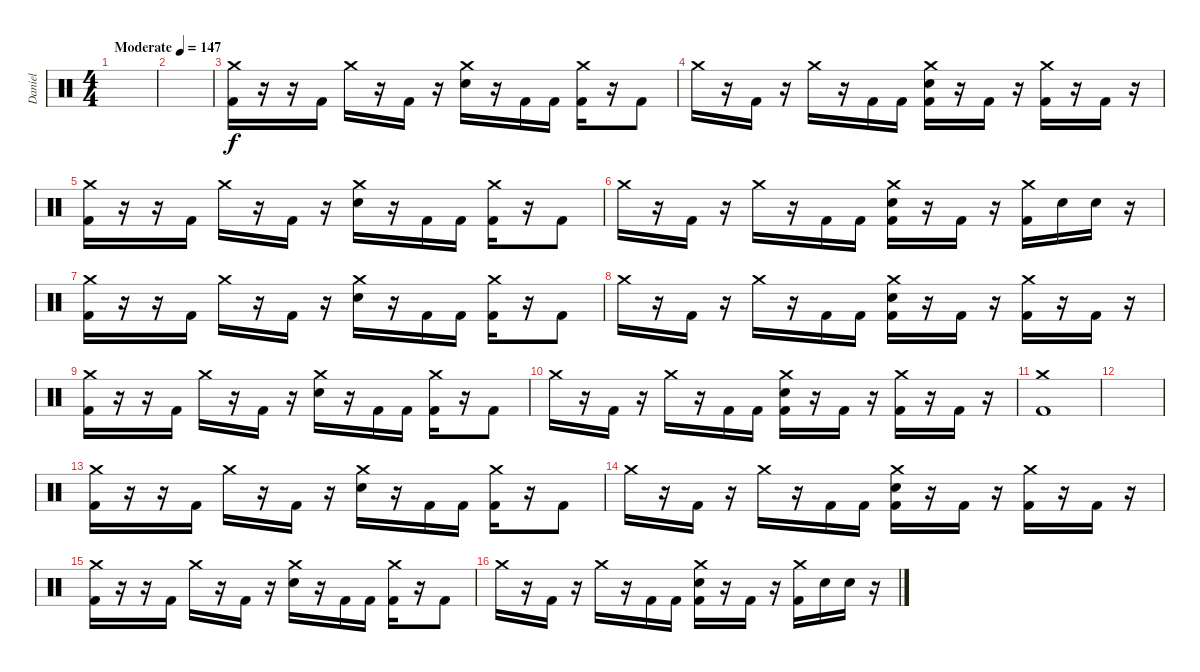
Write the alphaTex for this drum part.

\track ("Daniel" "Daniel") {instrument percussion}
\staff {score}
\articulation defaults
\ts (4 4)
\tempo (147 "Moderate")
\clef neutral
\ks c
|
|
("Crash medium (hit)" "Kick (hit) 2").16 r.16 r.16 "Kick (hit) 2".16 "Crash medium (hit)".16 r.16 "Kick (hit) 2".16 r.16 ("Crash medium (hit)" "Electric Snare (hit)").16 r.16 "Kick (hit) 2".16 "Kick (hit) 2".16 ("Crash medium (hit)" "Kick (hit) 2").16 r.16 "Kick (hit) 2".8 |
"Crash medium (hit)".16 r.16 "Kick (hit) 2".16 r.16 "Crash medium (hit)".16 r.16 "Kick (hit) 2".16 "Kick (hit) 2".16 ("Crash medium (hit)" "Electric Snare (hit)" "Kick (hit) 2").16 r.16 "Kick (hit) 2".16 r.16 ("Crash medium (hit)" "Kick (hit) 2").16 r.16 "Kick (hit) 2".16 r.16 |
("Crash medium (hit)" "Kick (hit) 2").16 r.16 r.16 "Kick (hit) 2".16 "Crash medium (hit)".16 r.16 "Kick (hit) 2".16 r.16 ("Crash medium (hit)" "Electric Snare (hit)").16 r.16 "Kick (hit) 2".16 "Kick (hit) 2".16 ("Crash medium (hit)" "Kick (hit) 2").16 r.16 "Kick (hit) 2".8 |
"Crash medium (hit)".16 r.16 "Kick (hit) 2".16 r.16 "Crash medium (hit)".16 r.16 "Kick (hit) 2".16 "Kick (hit) 2".16 ("Crash medium (hit)" "Electric Snare (hit)" "Kick (hit) 2").16 r.16 "Kick (hit) 2".16 r.16 ("Crash medium (hit)" "Kick (hit) 2").16 "Electric Snare (hit)".16 "Electric Snare (hit)".16 r.16 |
("Crash medium (hit)" "Kick (hit) 2").16 r.16 r.16 "Kick (hit) 2".16 "Crash medium (hit)".16 r.16 "Kick (hit) 2".16 r.16 ("Crash medium (hit)" "Electric Snare (hit)").16 r.16 "Kick (hit) 2".16 "Kick (hit) 2".16 ("Crash medium (hit)" "Kick (hit) 2").16 r.16 "Kick (hit) 2".8 |
"Crash medium (hit)".16 r.16 "Kick (hit) 2".16 r.16 "Crash medium (hit)".16 r.16 "Kick (hit) 2".16 "Kick (hit) 2".16 ("Crash medium (hit)" "Electric Snare (hit)" "Kick (hit) 2").16 r.16 "Kick (hit) 2".16 r.16 ("Crash medium (hit)" "Kick (hit) 2").16 r.16 "Kick (hit) 2".16 r.16 |
("Crash medium (hit)" "Kick (hit) 2").16 r.16 r.16 "Kick (hit) 2".16 "Crash medium (hit)".16 r.16 "Kick (hit) 2".16 r.16 ("Crash medium (hit)" "Electric Snare (hit)").16 r.16 "Kick (hit) 2".16 "Kick (hit) 2".16 ("Crash medium (hit)" "Kick (hit) 2").16 r.16 "Kick (hit) 2".8 |
"Crash medium (hit)".16 r.16 "Kick (hit) 2".16 r.16 "Crash medium (hit)".16 r.16 "Kick (hit) 2".16 "Kick (hit) 2".16 ("Crash medium (hit)" "Electric Snare (hit)" "Kick (hit) 2").16 r.16 "Kick (hit) 2".16 r.16 ("Crash medium (hit)" "Kick (hit) 2").16 r.16 "Kick (hit) 2".16 r.16 |
("Crash medium (hit)" "Kick (hit) 2").1 |
|
("Crash medium (hit)" "Kick (hit) 2").16 r.16 r.16 "Kick (hit) 2".16 "Crash medium (hit)".16 r.16 "Kick (hit) 2".16 r.16 ("Crash medium (hit)" "Electric Snare (hit)").16 r.16 "Kick (hit) 2".16 "Kick (hit) 2".16 ("Crash medium (hit)" "Kick (hit) 2").16 r.16 "Kick (hit) 2".8 |
"Crash medium (hit)".16 r.16 "Kick (hit) 2".16 r.16 "Crash medium (hit)".16 r.16 "Kick (hit) 2".16 "Kick (hit) 2".16 ("Crash medium (hit)" "Electric Snare (hit)" "Kick (hit) 2").16 r.16 "Kick (hit) 2".16 r.16 ("Crash medium (hit)" "Kick (hit) 2").16 r.16 "Kick (hit) 2".16 r.16 |
("Crash medium (hit)" "Kick (hit) 2").16 r.16 r.16 "Kick (hit) 2".16 "Crash medium (hit)".16 r.16 "Kick (hit) 2".16 r.16 ("Crash medium (hit)" "Electric Snare (hit)").16 r.16 "Kick (hit) 2".16 "Kick (hit) 2".16 ("Crash medium (hit)" "Kick (hit) 2").16 r.16 "Kick (hit) 2".8 |
"Crash medium (hit)".16 r.16 "Kick (hit) 2".16 r.16 "Crash medium (hit)".16 r.16 "Kick (hit) 2".16 "Kick (hit) 2".16 ("Crash medium (hit)" "Electric Snare (hit)" "Kick (hit) 2").16 r.16 "Kick (hit) 2".16 r.16 ("Crash medium (hit)" "Kick (hit) 2").16 "Electric Snare (hit)".16 "Electric Snare (hit)".16 r.16
